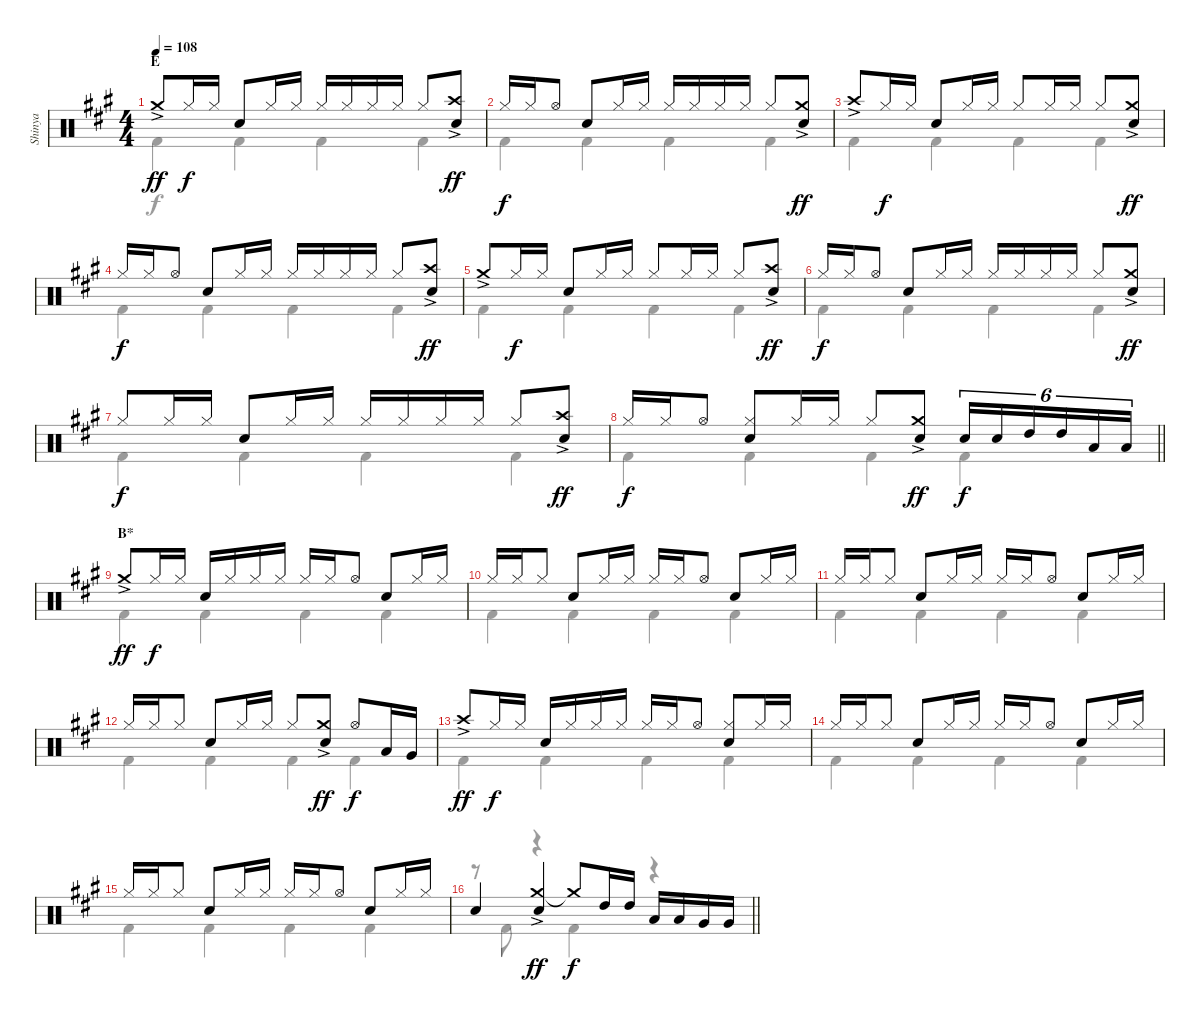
\track ("Shinya" "Shinya") {instrument percussion}
\staff {score}
\articulation defaults
\voice
\ts (4 4)
\section ("" "E")
\tempo 108
\clef neutral
\ks f#minor "Crash medium (hit)"{ac}.8{dy ff} "Hi-Hat (closed)".16{dy f} "Hi-Hat (closed)".16 "Snare (hit) 2".8 "Hi-Hat (closed)".16 "Hi-Hat (closed)".16 "Hi-Hat (closed)".16 "Hi-Hat (closed)".16 "Hi-Hat (closed)".16 "Hi-Hat (closed)".16 "Hi-Hat (closed)".8
("Crash high (hit)"{ac} "Snare (hit) 2").8{dy ff} |
"Hi-Hat (closed)".16{dy f} "Hi-Hat (closed)".16 "Hi-Hat (open)".8 "Snare (hit) 2".8 "Hi-Hat (closed)".16 "Hi-Hat (closed)".16 "Hi-Hat (closed)".16 "Hi-Hat (closed)".16 "Hi-Hat (closed)".16 "Hi-Hat (closed)".16 "Hi-Hat (closed)".8 ("Crash medium (hit)"{ac} "Snare (hit) 2").8{dy ff} |
"Crash high (hit)"{ac}.8 "Hi-Hat (closed)".16{dy f} "Hi-Hat (closed)".16 "Snare (hit) 2".8 "Hi-Hat (closed)".16 "Hi-Hat (closed)".16 "Hi-Hat (closed)".8 "Hi-Hat (closed)".16 "Hi-Hat (closed)".16 "Hi-Hat (closed)".8 ("Crash medium (hit)"{ac} "Snare (hit) 2").8{dy ff} |
"Hi-Hat (closed)".16{dy f} "Hi-Hat (closed)".16 "Hi-Hat (open)".8 "Snare (hit) 2".8 "Hi-Hat (closed)".16 "Hi-Hat (closed)".16 "Hi-Hat (closed)".16 "Hi-Hat (closed)".16 "Hi-Hat (closed)".16 "Hi-Hat (closed)".16 "Hi-Hat (closed)".8 ("Crash high (hit)"{ac} "Snare (hit) 2").8{dy ff} |
"Crash medium (hit)"{ac}.8 "Hi-Hat (closed)".16{dy f} "Hi-Hat (closed)".16 "Snare (hit) 2".8 "Hi-Hat (closed)".16 "Hi-Hat (closed)".16 "Hi-Hat (closed)".8 "Hi-Hat (closed)".16 "Hi-Hat (closed)".16 "Hi-Hat (closed)".8 ("Crash high (hit)"{ac} "Snare (hit) 2").8{dy ff} |
"Hi-Hat (closed)".16{dy f} "Hi-Hat (closed)".16 "Hi-Hat (open)".8 "Snare (hit) 2".8 "Hi-Hat (closed)".16 "Hi-Hat (closed)".16 "Hi-Hat (closed)".16 "Hi-Hat (closed)".16 "Hi-Hat (closed)".16 "Hi-Hat (closed)".16 "Hi-Hat (closed)".8 ("Crash medium (hit)"{ac} "Snare (hit) 2").8{dy ff} |
"Hi-Hat (closed)".8{dy f} "Hi-Hat (closed)".16 "Hi-Hat (closed)".16 "Snare (hit) 2".8 "Hi-Hat (closed)".16 "Hi-Hat (closed)".16 "Hi-Hat (closed)".16 "Hi-Hat (closed)".16 "Hi-Hat (closed)".16 "Hi-Hat (closed)".16 "Hi-Hat (closed)".8 ("Crash high (hit)"{ac} "Snare (hit) 2").8{dy ff} |
\barLineRight lightlight "Hi-Hat (closed)".16{dy f} "Hi-Hat (closed)".16 "Hi-Hat (open)".8
("Hi-Hat (closed)" "Snare (hit) 2").8 "Hi-Hat (closed)".16 "Hi-Hat (closed)".16 "Hi-Hat (closed)".8 ("Crash medium (hit)"{ac} "Snare (hit) 2").8{dy ff} "Snare (hit) 2".16{tu (6 4) dy f} "Snare (hit) 2".16{tu (6 4)} "High Tom (hit)".16{tu (6 4)} "High Tom (hit)".16{tu (6 4)} "Low Tom (hit)".16{tu (6 4)} "Low Tom (hit)".16{tu (6 4)} |
\section ("" "B*")
"Crash medium (hit)"{ac}.8{dy ff} "Hi-Hat (closed)".16{dy f} "Hi-Hat (closed)".16 "Snare (hit) 2".16 "Hi-Hat (closed)".16 "Hi-Hat (closed)".16 "Hi-Hat (closed)".16 "Hi-Hat (closed)".16 "Hi-Hat (closed)".16 "Hi-Hat (open)".8 "Snare (hit) 2".8 "Hi-Hat (closed)".16 "Hi-Hat (closed)".16 |
"Hi-Hat (closed)".16 "Hi-Hat (closed)".16 "Hi-Hat (closed)".8 "Snare (hit) 2".8 "Hi-Hat (closed)".16 "Hi-Hat (closed)".16 "Hi-Hat (closed)".16 "Hi-Hat (closed)".16 "Hi-Hat (open)".8 "Snare (hit) 2".8 "Hi-Hat (closed)".16 "Hi-Hat (closed)".16 |
"Hi-Hat (closed)".16 "Hi-Hat (closed)".16 "Hi-Hat (closed)".8 "Snare (hit) 2".8 "Hi-Hat (closed)".16 "Hi-Hat (closed)".16 "Hi-Hat (closed)".16 "Hi-Hat (closed)".16 "Hi-Hat (open)".8 "Snare (hit) 2".8 "Hi-Hat (closed)".16 "Hi-Hat (closed)".16 |
"Hi-Hat (closed)".16 "Hi-Hat (closed)".16 "Hi-Hat (closed)".8 "Snare (hit) 2".8 "Hi-Hat (closed)".16 "Hi-Hat (closed)".16 "Hi-Hat (closed)".8 ("Crash medium (hit)"{ac} "Snare (hit) 2").8{dy ff} "Hi-Hat (open)".8{dy f} "Low Tom (hit)".16 "Very Low Tom (hit)".16 |
"Crash high (hit)"{ac}.8{dy ff} "Hi-Hat (closed)".16{dy f} "Hi-Hat (closed)".16 "Snare (hit) 2".16 "Hi-Hat (closed)".16 "Hi-Hat (closed)".16 "Hi-Hat (closed)".16 "Hi-Hat (closed)".16 "Hi-Hat (closed)".16 "Hi-Hat (open)".8 ("Hi-Hat (closed)" "Snare (hit) 2").8 "Hi-Hat (closed)".16 "Hi-Hat (closed)".16 |
"Hi-Hat (closed)".16 "Hi-Hat (closed)".16 "Hi-Hat (closed)".8 "Snare (hit) 2".8 "Hi-Hat (closed)".16 "Hi-Hat (closed)".16 "Hi-Hat (closed)".16 "Hi-Hat (closed)".16 "Hi-Hat (open)".8 "Snare (hit) 2".8 "Hi-Hat (closed)".16 "Hi-Hat (closed)".16 |
"Hi-Hat (closed)".16 "Hi-Hat (closed)".16 "Hi-Hat (closed)".8 "Snare (hit) 2".8 "Hi-Hat (closed)".16 "Hi-Hat (closed)".16 "Hi-Hat (closed)".16 "Hi-Hat (closed)".16 "Hi-Hat (open)".8 "Snare (hit) 2".8 "Hi-Hat (closed)".16 "Hi-Hat (closed)".16 |
\barLineRight lightlight "Snare (hit) 2".4
("Crash medium (hit)"{ac} "Snare (hit) 2").4{dy ff} "Crash medium (hit)"{t}.8{dy f} "High Tom (hit)".16 "High Tom (hit)".16 "Low Tom (hit)".16 "Low Tom (hit)".16 "Very Low Tom (hit)".16 "Very Low Tom (hit)".16
\voice
\clef neutral
\ottava regular
\simile none
\ks f#minor "Kick (hit) 2".4{dy f} "Kick (hit) 2".4 "Kick (hit) 2".4 "Kick (hit) 2".4
|
"Kick (hit) 2".4 "Kick (hit) 2".4 "Kick (hit) 2".4 "Kick (hit) 2".4 |
"Kick (hit) 2".4 "Kick (hit) 2".4 "Kick (hit) 2".4 "Kick (hit) 2".4 |
"Kick (hit) 2".4 "Kick (hit) 2".4 "Kick (hit) 2".4 "Kick (hit) 2".4 |
"Kick (hit) 2".4 "Kick (hit) 2".4 "Kick (hit) 2".4 "Kick (hit) 2".4 |
"Kick (hit) 2".4 "Kick (hit) 2".4 "Kick (hit) 2".4 "Kick (hit) 2".4 |
"Kick (hit) 2".4 "Kick (hit) 2".4 "Kick (hit) 2".4 "Kick (hit) 2".4 |
\barLineRight lightlight "Kick (hit) 2".4 "Kick (hit) 2".4 "Kick (hit) 2".4 "Kick (hit) 2".4
|
"Kick (hit) 2".4 "Kick (hit) 2".4 "Kick (hit) 2".4 "Kick (hit) 2".4 |
"Kick (hit) 2".4 "Kick (hit) 2".4 "Kick (hit) 2".4 "Kick (hit) 2".4 |
"Kick (hit) 2".4 "Kick (hit) 2".4 "Kick (hit) 2".4 "Kick (hit) 2".4 |
"Kick (hit) 2".4 "Kick (hit) 2".4 "Kick (hit) 2".4 "Kick (hit) 2".4 |
"Kick (hit) 2".4 "Kick (hit) 2".4 "Kick (hit) 2".4 "Kick (hit) 2".4 |
"Kick (hit) 2".4 "Kick (hit) 2".4 "Kick (hit) 2".4 "Kick (hit) 2".4 |
"Kick (hit) 2".4 "Kick (hit) 2".4 "Kick (hit) 2".4 "Kick (hit) 2".4 |
\barLineRight lightlight
r.8 "Kick (hit) 2".8 r.4 "Kick (hit) 2".4 r.4
